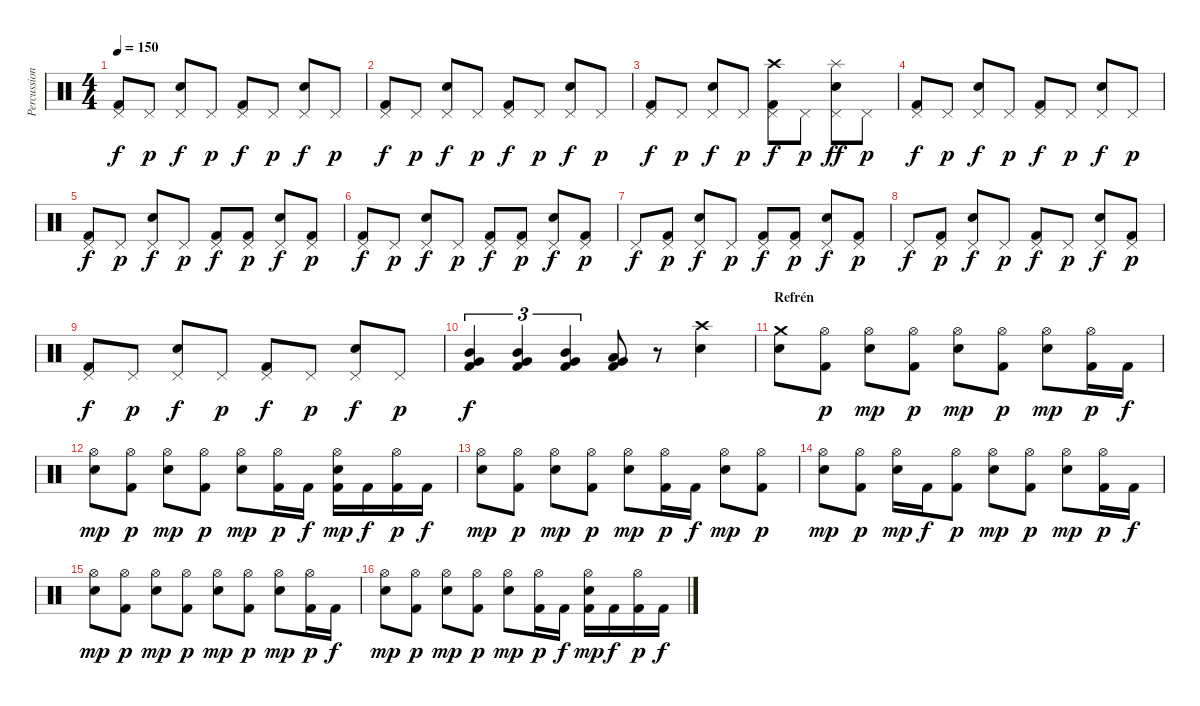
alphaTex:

\track ("Percussion" "Percussion") {instrument percussion}
\staff {score}
\articulation defaults
\ts (4 4)
\tempo 150
\clef neutral
\ks c
("Pedal Hi-Hat (hit)" "Kick (hit) 2").8{dy f} "Pedal Hi-Hat (hit)".8{dy p} ("Pedal Hi-Hat (hit)" "Snare (hit) 2").8{dy f} "Pedal Hi-Hat (hit)".8{dy p} ("Pedal Hi-Hat (hit)" "Kick (hit) 2").8{dy f} "Pedal Hi-Hat (hit)".8{dy p} ("Pedal Hi-Hat (hit)" "Snare (hit) 2").8{dy f} "Pedal Hi-Hat (hit)".8{dy p} |
("Pedal Hi-Hat (hit)" "Kick (hit) 2").8{dy f} "Pedal Hi-Hat (hit)".8{dy p} ("Pedal Hi-Hat (hit)" "Snare (hit) 2").8{dy f} "Pedal Hi-Hat (hit)".8{dy p} ("Pedal Hi-Hat (hit)" "Kick (hit) 2").8{dy f} "Pedal Hi-Hat (hit)".8{dy p} ("Pedal Hi-Hat (hit)" "Snare (hit) 2").8{dy f} "Pedal Hi-Hat (hit)".8{dy p} |
("Pedal Hi-Hat (hit)" "Kick (hit) 2").8{dy f} "Pedal Hi-Hat (hit)".8{dy p} ("Pedal Hi-Hat (hit)" "Snare (hit) 2").8{dy f} "Pedal Hi-Hat (hit)".8{dy p} ("Pedal Hi-Hat (hit)" "Crash high (hit)" "Kick (hit) 2").8{dy f} "Pedal Hi-Hat (hit)".8{dy p} ("Pedal Hi-Hat (hit)" "Splash (hit)" "Snare (hit) 2").8{dy ff} "Pedal Hi-Hat (hit)".8{dy p} |
("Pedal Hi-Hat (hit)" "Kick (hit) 2").8{dy f} "Pedal Hi-Hat (hit)".8{dy p} ("Pedal Hi-Hat (hit)" "Snare (hit) 2").8{dy f} "Pedal Hi-Hat (hit)".8{dy p} ("Pedal Hi-Hat (hit)" "Kick (hit) 2").8{dy f} "Pedal Hi-Hat (hit)".8{dy p} ("Pedal Hi-Hat (hit)" "Snare (hit) 2").8{dy f} "Pedal Hi-Hat (hit)".8{dy p} |
("Pedal Hi-Hat (hit)" "Kick (hit) 2").8{dy f} "Pedal Hi-Hat (hit)".8{dy p} ("Pedal Hi-Hat (hit)" "Snare (hit) 2").8{dy f} "Pedal Hi-Hat (hit)".8{dy p} ("Pedal Hi-Hat (hit)" "Kick (hit) 2").8{dy f} ("Pedal Hi-Hat (hit)" "Kick (hit) 2").8{dy p} ("Pedal Hi-Hat (hit)" "Snare (hit) 2").8{dy f} ("Pedal Hi-Hat (hit)" "Kick (hit) 2").8{dy p} |
("Pedal Hi-Hat (hit)" "Kick (hit) 2").8{dy f} "Pedal Hi-Hat (hit)".8{dy p} ("Pedal Hi-Hat (hit)" "Snare (hit) 2").8{dy f} "Pedal Hi-Hat (hit)".8{dy p} ("Pedal Hi-Hat (hit)" "Kick (hit) 2").8{dy f} ("Pedal Hi-Hat (hit)" "Kick (hit) 2").8{dy p} ("Pedal Hi-Hat (hit)" "Snare (hit) 2").8{dy f} ("Pedal Hi-Hat (hit)" "Kick (hit) 2").8{dy p} |
"Pedal Hi-Hat (hit)".8{dy f} ("Pedal Hi-Hat (hit)" "Kick (hit) 2").8{dy p} ("Pedal Hi-Hat (hit)" "Snare (hit) 2").8{dy f} "Pedal Hi-Hat (hit)".8{dy p} ("Pedal Hi-Hat (hit)" "Kick (hit) 2").8{dy f} ("Pedal Hi-Hat (hit)" "Kick (hit) 2").8{dy p} ("Pedal Hi-Hat (hit)" "Snare (hit) 2").8{dy f} ("Pedal Hi-Hat (hit)" "Kick (hit) 2").8{dy p} |
"Pedal Hi-Hat (hit)".8{dy f} ("Pedal Hi-Hat (hit)" "Kick (hit) 2").8{dy p} ("Pedal Hi-Hat (hit)" "Snare (hit) 2").8{dy f} "Pedal Hi-Hat (hit)".8{dy p} ("Pedal Hi-Hat (hit)" "Kick (hit) 2").8{dy f} "Pedal Hi-Hat (hit)".8{dy p} ("Pedal Hi-Hat (hit)" "Snare (hit) 2").8{dy f} ("Pedal Hi-Hat (hit)" "Kick (hit) 2").8{dy p} |
("Pedal Hi-Hat (hit)" "Kick (hit) 2").8{dy f} "Pedal Hi-Hat (hit)".8{dy p} ("Pedal Hi-Hat (hit)" "Snare (hit) 2").8{dy f} "Pedal Hi-Hat (hit)".8{dy p} ("Pedal Hi-Hat (hit)" "Kick (hit) 2").8{dy f} "Pedal Hi-Hat (hit)".8{dy p} ("Pedal Hi-Hat (hit)" "Snare (hit) 2").8{dy f} "Pedal Hi-Hat (hit)".8{dy p} |
("Kick (hit) 2" "Very Low Tom (hit)" "Mid Tom (hit)").4{tu (3 2) dy f} ("Kick (hit) 2" "Very Low Tom (hit)" "Mid Tom (hit)").4{tu (3 2)} ("Kick (hit) 2" "Very Low Tom (hit)" "Mid Tom (hit)").4{tu (3 2)} ("Kick (hit) 2" "Low Tom (hit)" "Very Low Tom (hit)").8 r.8 ("Crash high (hit)" "Snare (hit) 2").4 |
\section ("" "Refrén")
("Crash medium (hit)" "Snare (hit) 2").8 ("Hi-Hat (open)" "Kick (hit) 2").8{dy p} ("Hi-Hat (open)" "Snare (hit) 2").8{dy mp} ("Hi-Hat (open)" "Kick (hit) 2").8{dy p} ("Hi-Hat (open)" "Snare (hit) 2").8{dy mp} ("Hi-Hat (open)" "Kick (hit) 2").8{dy p} ("Hi-Hat (open)" "Snare (hit) 2").8{dy mp} ("Hi-Hat (open)" "Kick (hit) 2").16{dy p} "Kick (hit) 2".16{dy f} |
("Hi-Hat (open)" "Snare (hit) 2").8{dy mp} ("Hi-Hat (open)" "Kick (hit) 2").8{dy p} ("Hi-Hat (open)" "Snare (hit) 2").8{dy mp} ("Hi-Hat (open)" "Kick (hit) 2").8{dy p} ("Hi-Hat (open)" "Snare (hit) 2").8{dy mp} ("Hi-Hat (open)" "Kick (hit) 2").16{dy p} "Kick (hit) 2".16{dy f} ("Hi-Hat (open)" "Kick (hit) 2" "Snare (hit) 2").16{dy mp} "Kick (hit) 2".16{dy f} ("Hi-Hat (open)" "Kick (hit) 2").16{dy p} "Kick (hit) 2".16{dy f} |
("Hi-Hat (open)" "Snare (hit) 2").8{dy mp} ("Hi-Hat (open)" "Kick (hit) 2").8{dy p} ("Hi-Hat (open)" "Snare (hit) 2").8{dy mp} ("Hi-Hat (open)" "Kick (hit) 2").8{dy p} ("Hi-Hat (open)" "Snare (hit) 2").8{dy mp} ("Hi-Hat (open)" "Kick (hit) 2").16{dy p} "Kick (hit) 2".16{dy f} ("Hi-Hat (open)" "Snare (hit) 2").8{dy mp} ("Hi-Hat (open)" "Kick (hit) 2").8{dy p} |
("Hi-Hat (open)" "Snare (hit) 2").8{dy mp} ("Hi-Hat (open)" "Kick (hit) 2").8{dy p} ("Hi-Hat (open)" "Snare (hit) 2").16{dy mp} "Kick (hit) 2".16{dy f} ("Hi-Hat (open)" "Kick (hit) 2").8{dy p} ("Hi-Hat (open)" "Snare (hit) 2").8{dy mp} ("Hi-Hat (open)" "Kick (hit) 2").8{dy p} ("Hi-Hat (open)" "Snare (hit) 2").8{dy mp} ("Hi-Hat (open)" "Kick (hit) 2").16{dy p} "Kick (hit) 2".16{dy f} |
("Hi-Hat (open)" "Snare (hit) 2").8{dy mp} ("Hi-Hat (open)" "Kick (hit) 2").8{dy p} ("Hi-Hat (open)" "Snare (hit) 2").8{dy mp} ("Hi-Hat (open)" "Kick (hit) 2").8{dy p} ("Hi-Hat (open)" "Snare (hit) 2").8{dy mp} ("Hi-Hat (open)" "Kick (hit) 2").8{dy p} ("Hi-Hat (open)" "Snare (hit) 2").8{dy mp} ("Hi-Hat (open)" "Kick (hit) 2").16{dy p} "Kick (hit) 2".16{dy f} |
("Hi-Hat (open)" "Snare (hit) 2").8{dy mp} ("Hi-Hat (open)" "Kick (hit) 2").8{dy p} ("Hi-Hat (open)" "Snare (hit) 2").8{dy mp} ("Hi-Hat (open)" "Kick (hit) 2").8{dy p} ("Hi-Hat (open)" "Snare (hit) 2").8{dy mp} ("Hi-Hat (open)" "Kick (hit) 2").16{dy p} "Kick (hit) 2".16{dy f} ("Hi-Hat (open)" "Kick (hit) 2" "Snare (hit) 2").16{dy mp} "Kick (hit) 2".16{dy f} ("Hi-Hat (open)" "Kick (hit) 2").16{dy p} "Kick (hit) 2".16{dy f}
